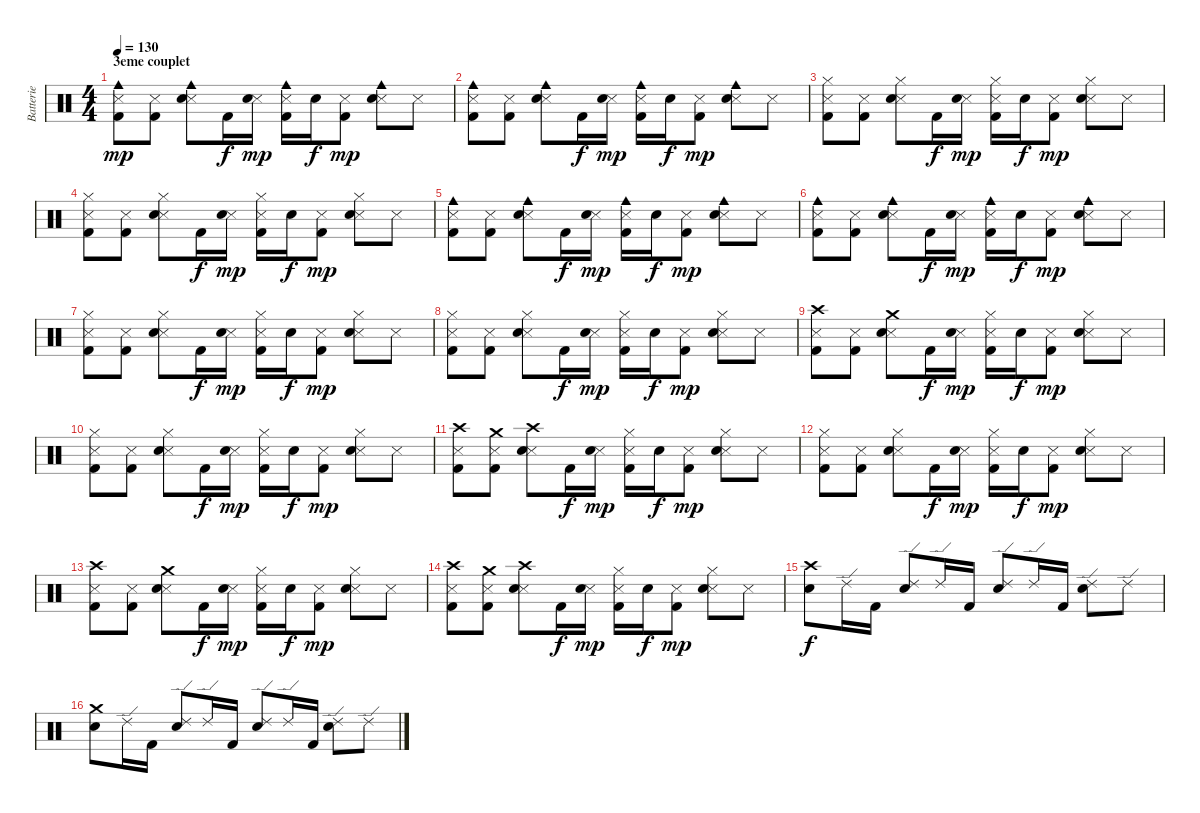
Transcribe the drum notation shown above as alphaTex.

\track ("Batterie" "Batterie") {instrument percussion}
\staff {score}
\articulation defaults
\ts (4 4)
\section ("" "3eme couplet")
\tempo 130
\clef neutral
\ks c
("Cowbell medium (hit)" "Snare (side stick) 3" "Kick (hit) 2").8{dy mp} ("Snare (side stick) 3" "Kick (hit) 2").8 ("Cowbell medium (hit)" "Snare (side stick) 3" "Snare (hit) 2").8 "Kick (hit) 2".16{dy f} ("Snare (side stick) 3" "Snare (hit) 2").16{dy mp} ("Cowbell medium (hit)" "Snare (side stick) 3" "Kick (hit) 2").16 "Snare (hit) 2".16{dy f} ("Snare (side stick) 3" "Kick (hit) 2").8{dy mp} ("Cowbell medium (hit)" "Snare (side stick) 3" "Snare (hit) 2").8 "Snare (side stick) 3".8 |
("Cowbell medium (hit)" "Snare (side stick) 3" "Kick (hit) 2").8 ("Snare (side stick) 3" "Kick (hit) 2").8 ("Cowbell medium (hit)" "Snare (side stick) 3" "Snare (hit) 2").8 "Kick (hit) 2".16{dy f} ("Snare (side stick) 3" "Snare (hit) 2").16{dy mp} ("Cowbell medium (hit)" "Snare (side stick) 3" "Kick (hit) 2").16 "Snare (hit) 2".16{dy f} ("Snare (side stick) 3" "Kick (hit) 2").8{dy mp} ("Cowbell medium (hit)" "Snare (side stick) 3" "Snare (hit) 2").8 "Snare (side stick) 3".8 |
("Hi-Hat (closed)" "Snare (side stick) 3" "Kick (hit) 2").8 ("Snare (side stick) 3" "Kick (hit) 2").8 ("Hi-Hat (closed)" "Snare (side stick) 3" "Snare (hit) 2").8 "Kick (hit) 2".16{dy f} ("Snare (side stick) 3" "Snare (hit) 2").16{dy mp} ("Hi-Hat (closed)" "Snare (side stick) 3" "Kick (hit) 2").16 "Snare (hit) 2".16{dy f} ("Snare (side stick) 3" "Kick (hit) 2").8{dy mp} ("Hi-Hat (closed)" "Snare (side stick) 3" "Snare (hit) 2").8 "Snare (side stick) 3".8 |
("Hi-Hat (closed)" "Snare (side stick) 3" "Kick (hit) 2").8 ("Snare (side stick) 3" "Kick (hit) 2").8 ("Hi-Hat (closed)" "Snare (side stick) 3" "Snare (hit) 2").8 "Kick (hit) 2".16{dy f} ("Snare (side stick) 3" "Snare (hit) 2").16{dy mp} ("Hi-Hat (closed)" "Snare (side stick) 3" "Kick (hit) 2").16 "Snare (hit) 2".16{dy f} ("Snare (side stick) 3" "Kick (hit) 2").8{dy mp} ("Hi-Hat (closed)" "Snare (side stick) 3" "Snare (hit) 2").8 "Snare (side stick) 3".8 |
("Cowbell medium (hit)" "Snare (side stick) 3" "Kick (hit) 2").8 ("Snare (side stick) 3" "Kick (hit) 2").8 ("Cowbell medium (hit)" "Snare (side stick) 3" "Snare (hit) 2").8 "Kick (hit) 2".16{dy f} ("Snare (side stick) 3" "Snare (hit) 2").16{dy mp} ("Cowbell medium (hit)" "Snare (side stick) 3" "Kick (hit) 2").16 "Snare (hit) 2".16{dy f} ("Snare (side stick) 3" "Kick (hit) 2").8{dy mp} ("Cowbell medium (hit)" "Snare (side stick) 3" "Snare (hit) 2").8 "Snare (side stick) 3".8 |
("Cowbell medium (hit)" "Snare (side stick) 3" "Kick (hit) 2").8 ("Snare (side stick) 3" "Kick (hit) 2").8 ("Cowbell medium (hit)" "Snare (side stick) 3" "Snare (hit) 2").8 "Kick (hit) 2".16{dy f} ("Snare (side stick) 3" "Snare (hit) 2").16{dy mp} ("Cowbell medium (hit)" "Snare (side stick) 3" "Kick (hit) 2").16 "Snare (hit) 2".16{dy f} ("Snare (side stick) 3" "Kick (hit) 2").8{dy mp} ("Cowbell medium (hit)" "Snare (side stick) 3" "Snare (hit) 2").8 "Snare (side stick) 3".8 |
("Hi-Hat (closed)" "Snare (side stick) 3" "Kick (hit) 2").8 ("Snare (side stick) 3" "Kick (hit) 2").8 ("Hi-Hat (closed)" "Snare (side stick) 3" "Snare (hit) 2").8 "Kick (hit) 2".16{dy f} ("Snare (side stick) 3" "Snare (hit) 2").16{dy mp} ("Hi-Hat (closed)" "Snare (side stick) 3" "Kick (hit) 2").16 "Snare (hit) 2".16{dy f} ("Snare (side stick) 3" "Kick (hit) 2").8{dy mp} ("Hi-Hat (closed)" "Snare (side stick) 3" "Snare (hit) 2").8 "Snare (side stick) 3".8 |
("Hi-Hat (closed)" "Snare (side stick) 3" "Kick (hit) 2").8 ("Snare (side stick) 3" "Kick (hit) 2").8 ("Hi-Hat (closed)" "Snare (side stick) 3" "Snare (hit) 2").8 "Kick (hit) 2".16{dy f} ("Snare (side stick) 3" "Snare (hit) 2").16{dy mp} ("Hi-Hat (closed)" "Snare (side stick) 3" "Kick (hit) 2").16 "Snare (hit) 2".16{dy f} ("Snare (side stick) 3" "Kick (hit) 2").8{dy mp} ("Hi-Hat (closed)" "Snare (side stick) 3" "Snare (hit) 2").8 "Snare (side stick) 3".8 |
("Crash high (hit)" "Snare (side stick) 3" "Kick (hit) 2").8 ("Snare (side stick) 3" "Kick (hit) 2").8 ("Crash medium (hit)" "Snare (side stick) 3" "Snare (hit) 2").8 "Kick (hit) 2".16{dy f} ("Snare (side stick) 3" "Snare (hit) 2").16{dy mp} ("Hi-Hat (closed)" "Snare (side stick) 3" "Kick (hit) 2").16 "Snare (hit) 2".16{dy f} ("Snare (side stick) 3" "Kick (hit) 2").8{dy mp} ("Hi-Hat (closed)" "Snare (side stick) 3" "Snare (hit) 2").8 "Snare (side stick) 3".8 |
("Hi-Hat (closed)" "Snare (side stick) 3" "Kick (hit) 2").8 ("Snare (side stick) 3" "Kick (hit) 2").8 ("Hi-Hat (closed)" "Snare (side stick) 3" "Snare (hit) 2").8 "Kick (hit) 2".16{dy f} ("Snare (side stick) 3" "Snare (hit) 2").16{dy mp} ("Hi-Hat (closed)" "Snare (side stick) 3" "Kick (hit) 2").16 "Snare (hit) 2".16{dy f} ("Snare (side stick) 3" "Kick (hit) 2").8{dy mp} ("Hi-Hat (closed)" "Snare (side stick) 3" "Snare (hit) 2").8 "Snare (side stick) 3".8 |
("Crash high (hit)" "Snare (side stick) 3" "Kick (hit) 2").8 ("Crash medium (hit)" "Snare (side stick) 3" "Kick (hit) 2").8 ("Crash high (hit)" "Snare (side stick) 3" "Snare (hit) 2").8 "Kick (hit) 2".16{dy f} ("Snare (side stick) 3" "Snare (hit) 2").16{dy mp} ("Hi-Hat (closed)" "Snare (side stick) 3" "Kick (hit) 2").16 "Snare (hit) 2".16{dy f} ("Snare (side stick) 3" "Kick (hit) 2").8{dy mp} ("Hi-Hat (closed)" "Snare (side stick) 3" "Snare (hit) 2").8 "Snare (side stick) 3".8 |
("Hi-Hat (closed)" "Snare (side stick) 3" "Kick (hit) 2").8 ("Snare (side stick) 3" "Kick (hit) 2").8 ("Hi-Hat (closed)" "Snare (side stick) 3" "Snare (hit) 2").8 "Kick (hit) 2".16{dy f} ("Snare (side stick) 3" "Snare (hit) 2").16{dy mp} ("Hi-Hat (closed)" "Snare (side stick) 3" "Kick (hit) 2").16 "Snare (hit) 2".16{dy f} ("Snare (side stick) 3" "Kick (hit) 2").8{dy mp} ("Hi-Hat (closed)" "Snare (side stick) 3" "Snare (hit) 2").8 "Snare (side stick) 3".8 |
("Crash high (hit)" "Snare (side stick) 3" "Kick (hit) 2").8 ("Snare (side stick) 3" "Kick (hit) 2").8 ("Crash medium (hit)" "Snare (side stick) 3" "Snare (hit) 2").8 "Kick (hit) 2".16{dy f} ("Snare (side stick) 3" "Snare (hit) 2").16{dy mp} ("Hi-Hat (closed)" "Snare (side stick) 3" "Kick (hit) 2").16 "Snare (hit) 2".16{dy f} ("Snare (side stick) 3" "Kick (hit) 2").8{dy mp} ("Hi-Hat (closed)" "Snare (side stick) 3" "Snare (hit) 2").8 "Snare (side stick) 3".8 |
("Crash high (hit)" "Snare (side stick) 3" "Kick (hit) 2").8 ("Crash medium (hit)" "Snare (side stick) 3" "Kick (hit) 2").8 ("Crash high (hit)" "Snare (side stick) 3" "Snare (hit) 2").8 "Kick (hit) 2".16{dy f} ("Snare (side stick) 3" "Snare (hit) 2").16{dy mp} ("Hi-Hat (closed)" "Snare (side stick) 3" "Kick (hit) 2").16 "Snare (hit) 2".16{dy f} ("Snare (side stick) 3" "Kick (hit) 2").8{dy mp} ("Hi-Hat (closed)" "Snare (side stick) 3" "Snare (hit) 2").8 "Snare (side stick) 3".8 |
("Crash high (hit)" "Snare (hit) 2").8{dy f} "Ride (edge) 2".16 "Kick (hit) 2".16 ("Ride (edge) 2" "Snare (hit) 2").8 "Ride (edge) 2".16 "Kick (hit) 2".16 ("Ride (edge) 2" "Snare (hit) 2").8 "Ride (edge) 2".16 "Kick (hit) 2".16 ("Ride (edge) 2" "Snare (hit) 2").8 "Ride (edge) 2".8 |
("Crash medium (hit)" "Snare (hit) 2").8 "Ride (edge) 2".16 "Kick (hit) 2".16 ("Ride (edge) 2" "Snare (hit) 2").8 "Ride (edge) 2".16 "Kick (hit) 2".16 ("Ride (edge) 2" "Snare (hit) 2").8 "Ride (edge) 2".16 "Kick (hit) 2".16 ("Ride (edge) 2" "Snare (hit) 2").8 "Ride (edge) 2".8
